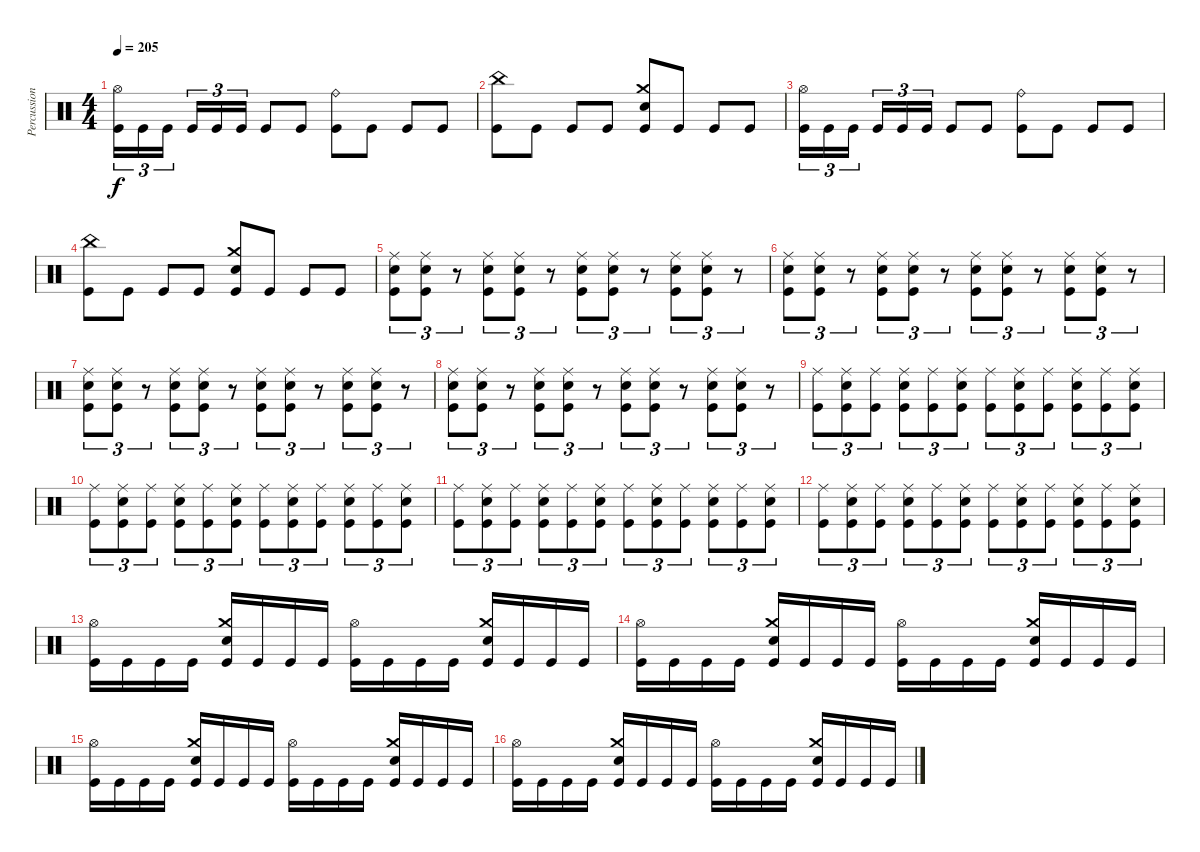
\track ("Percussion" "Percussion") {instrument percussion}
\staff {score}
\articulation defaults
\ts (4 4)
\tempo 205
\clef neutral
\ks c
("Hi-Hat (open)" "Kick (hit)").16{tu (3 2) dy f} "Kick (hit)".16{tu (3 2)} "Kick (hit)".16{tu (3 2)} "Kick (hit)".16{tu (3 2)} "Kick (hit)".16{tu (3 2)} "Kick (hit)".16{tu (3 2)} "Kick (hit)".8 "Kick (hit)".8 ("Ride (bell)" "Kick (hit)").8 "Kick (hit)".8 "Kick (hit)".8 "Kick (hit)".8 |
("China (hit)" "Kick (hit)").8 "Kick (hit)".8 "Kick (hit)".8 "Kick (hit)".8 ("Crash medium (hit)" "Electric Snare (hit)" "Kick (hit)").8 "Kick (hit)".8 "Kick (hit)".8 "Kick (hit)".8 |
("Hi-Hat (open)" "Kick (hit)").16{tu (3 2)} "Kick (hit)".16{tu (3 2)} "Kick (hit)".16{tu (3 2)} "Kick (hit)".16{tu (3 2)} "Kick (hit)".16{tu (3 2)} "Kick (hit)".16{tu (3 2)} "Kick (hit)".8 "Kick (hit)".8 ("Ride (bell)" "Kick (hit)").8 "Kick (hit)".8 "Kick (hit)".8 "Kick (hit)".8 |
("China (hit)" "Kick (hit)").8 "Kick (hit)".8 "Kick (hit)".8 "Kick (hit)".8 ("Crash medium (hit)" "Electric Snare (hit)" "Kick (hit)").8 "Kick (hit)".8 "Kick (hit)".8 "Kick (hit)".8 |
("Ride (middle)" "Electric Snare (hit)" "Kick (hit)").8{tu (3 2)} ("Ride (middle)" "Electric Snare (hit)" "Kick (hit)").8{tu (3 2)} r.8{tu (3 2)} ("Ride (middle)" "Electric Snare (hit)" "Kick (hit)").8{tu (3 2)} ("Ride (middle)" "Electric Snare (hit)" "Kick (hit)").8{tu (3 2)} r.8{tu (3 2)} ("Ride (middle)" "Electric Snare (hit)" "Kick (hit)").8{tu (3 2)} ("Ride (middle)" "Electric Snare (hit)" "Kick (hit)").8{tu (3 2)} r.8{tu (3 2)} ("Ride (middle)" "Electric Snare (hit)" "Kick (hit)").8{tu (3 2)} ("Ride (middle)" "Electric Snare (hit)" "Kick (hit)").8{tu (3 2)} r.8{tu (3 2)} |
("Ride (middle)" "Electric Snare (hit)" "Kick (hit)").8{tu (3 2)} ("Ride (middle)" "Electric Snare (hit)" "Kick (hit)").8{tu (3 2)} r.8{tu (3 2)} ("Ride (middle)" "Electric Snare (hit)" "Kick (hit)").8{tu (3 2)} ("Ride (middle)" "Electric Snare (hit)" "Kick (hit)").8{tu (3 2)} r.8{tu (3 2)} ("Ride (middle)" "Electric Snare (hit)" "Kick (hit)").8{tu (3 2)} ("Ride (middle)" "Electric Snare (hit)" "Kick (hit)").8{tu (3 2)} r.8{tu (3 2)} ("Ride (middle)" "Electric Snare (hit)" "Kick (hit)").8{tu (3 2)} ("Ride (middle)" "Electric Snare (hit)" "Kick (hit)").8{tu (3 2)} r.8{tu (3 2)} |
("Ride (middle)" "Electric Snare (hit)" "Kick (hit)").8{tu (3 2)} ("Ride (middle)" "Electric Snare (hit)" "Kick (hit)").8{tu (3 2)} r.8{tu (3 2)} ("Ride (middle)" "Electric Snare (hit)" "Kick (hit)").8{tu (3 2)} ("Ride (middle)" "Electric Snare (hit)" "Kick (hit)").8{tu (3 2)} r.8{tu (3 2)} ("Ride (middle)" "Electric Snare (hit)" "Kick (hit)").8{tu (3 2)} ("Ride (middle)" "Electric Snare (hit)" "Kick (hit)").8{tu (3 2)} r.8{tu (3 2)} ("Ride (middle)" "Electric Snare (hit)" "Kick (hit)").8{tu (3 2)} ("Ride (middle)" "Electric Snare (hit)" "Kick (hit)").8{tu (3 2)} r.8{tu (3 2)} |
("Ride (middle)" "Electric Snare (hit)" "Kick (hit)").8{tu (3 2)} ("Ride (middle)" "Electric Snare (hit)" "Kick (hit)").8{tu (3 2)} r.8{tu (3 2)} ("Ride (middle)" "Electric Snare (hit)" "Kick (hit)").8{tu (3 2)} ("Ride (middle)" "Electric Snare (hit)" "Kick (hit)").8{tu (3 2)} r.8{tu (3 2)} ("Ride (middle)" "Electric Snare (hit)" "Kick (hit)").8{tu (3 2)} ("Ride (middle)" "Electric Snare (hit)" "Kick (hit)").8{tu (3 2)} r.8{tu (3 2)} ("Ride (middle)" "Electric Snare (hit)" "Kick (hit)").8{tu (3 2)} ("Ride (middle)" "Electric Snare (hit)" "Kick (hit)").8{tu (3 2)} r.8{tu (3 2)} |
("Ride (middle)" "Kick (hit)").8{tu (3 2)} ("Ride (middle)" "Electric Snare (hit)" "Kick (hit)").8{tu (3 2)} ("Ride (middle)" "Kick (hit)").8{tu (3 2)} ("Ride (middle)" "Electric Snare (hit)" "Kick (hit)").8{tu (3 2)} ("Ride (middle)" "Kick (hit)").8{tu (3 2)} ("Ride (middle)" "Electric Snare (hit)" "Kick (hit)").8{tu (3 2)} ("Ride (middle)" "Kick (hit)").8{tu (3 2)} ("Ride (middle)" "Electric Snare (hit)" "Kick (hit)").8{tu (3 2)} ("Ride (middle)" "Kick (hit)").8{tu (3 2)} ("Ride (middle)" "Electric Snare (hit)" "Kick (hit)").8{tu (3 2)} ("Ride (middle)" "Kick (hit)").8{tu (3 2)} ("Ride (middle)" "Electric Snare (hit)" "Kick (hit)").8{tu (3 2)} |
("Ride (middle)" "Kick (hit)").8{tu (3 2)} ("Ride (middle)" "Electric Snare (hit)" "Kick (hit)").8{tu (3 2)} ("Ride (middle)" "Kick (hit)").8{tu (3 2)} ("Ride (middle)" "Electric Snare (hit)" "Kick (hit)").8{tu (3 2)} ("Ride (middle)" "Kick (hit)").8{tu (3 2)} ("Ride (middle)" "Electric Snare (hit)" "Kick (hit)").8{tu (3 2)} ("Ride (middle)" "Kick (hit)").8{tu (3 2)} ("Ride (middle)" "Electric Snare (hit)" "Kick (hit)").8{tu (3 2)} ("Ride (middle)" "Kick (hit)").8{tu (3 2)} ("Ride (middle)" "Electric Snare (hit)" "Kick (hit)").8{tu (3 2)} ("Ride (middle)" "Kick (hit)").8{tu (3 2)} ("Ride (middle)" "Electric Snare (hit)" "Kick (hit)").8{tu (3 2)} |
("Ride (middle)" "Kick (hit)").8{tu (3 2)} ("Ride (middle)" "Electric Snare (hit)" "Kick (hit)").8{tu (3 2)} ("Ride (middle)" "Kick (hit)").8{tu (3 2)} ("Ride (middle)" "Electric Snare (hit)" "Kick (hit)").8{tu (3 2)} ("Ride (middle)" "Kick (hit)").8{tu (3 2)} ("Ride (middle)" "Electric Snare (hit)" "Kick (hit)").8{tu (3 2)} ("Ride (middle)" "Kick (hit)").8{tu (3 2)} ("Ride (middle)" "Electric Snare (hit)" "Kick (hit)").8{tu (3 2)} ("Ride (middle)" "Kick (hit)").8{tu (3 2)} ("Ride (middle)" "Electric Snare (hit)" "Kick (hit)").8{tu (3 2)} ("Ride (middle)" "Kick (hit)").8{tu (3 2)} ("Ride (middle)" "Electric Snare (hit)" "Kick (hit)").8{tu (3 2)} |
("Ride (middle)" "Kick (hit)").8{tu (3 2)} ("Ride (middle)" "Electric Snare (hit)" "Kick (hit)").8{tu (3 2)} ("Ride (middle)" "Kick (hit)").8{tu (3 2)} ("Ride (middle)" "Electric Snare (hit)" "Kick (hit)").8{tu (3 2)} ("Ride (middle)" "Kick (hit)").8{tu (3 2)} ("Ride (middle)" "Electric Snare (hit)" "Kick (hit)").8{tu (3 2)} ("Ride (middle)" "Kick (hit)").8{tu (3 2)} ("Ride (middle)" "Electric Snare (hit)" "Kick (hit)").8{tu (3 2)} ("Ride (middle)" "Kick (hit)").8{tu (3 2)} ("Ride (middle)" "Electric Snare (hit)" "Kick (hit)").8{tu (3 2)} ("Ride (middle)" "Kick (hit)").8{tu (3 2)} ("Ride (middle)" "Electric Snare (hit)" "Kick (hit)").8{tu (3 2)} |
("Hi-Hat (open)" "Kick (hit)").16 "Kick (hit)".16 "Kick (hit)".16 "Kick (hit)".16 ("Crash medium (hit)" "Electric Snare (hit)" "Kick (hit)").16 "Kick (hit)".16 "Kick (hit)".16 "Kick (hit)".16 ("Hi-Hat (open)" "Kick (hit)").16 "Kick (hit)".16 "Kick (hit)".16 "Kick (hit)".16 ("Crash medium (hit)" "Electric Snare (hit)" "Kick (hit)").16 "Kick (hit)".16 "Kick (hit)".16 "Kick (hit)".16 |
("Hi-Hat (open)" "Kick (hit)").16 "Kick (hit)".16 "Kick (hit)".16 "Kick (hit)".16 ("Crash medium (hit)" "Electric Snare (hit)" "Kick (hit)").16 "Kick (hit)".16 "Kick (hit)".16 "Kick (hit)".16 ("Hi-Hat (open)" "Kick (hit)").16 "Kick (hit)".16 "Kick (hit)".16 "Kick (hit)".16 ("Crash medium (hit)" "Electric Snare (hit)" "Kick (hit)").16 "Kick (hit)".16 "Kick (hit)".16 "Kick (hit)".16 |
("Hi-Hat (open)" "Kick (hit)").16 "Kick (hit)".16 "Kick (hit)".16 "Kick (hit)".16 ("Crash medium (hit)" "Electric Snare (hit)" "Kick (hit)").16 "Kick (hit)".16 "Kick (hit)".16 "Kick (hit)".16 ("Hi-Hat (open)" "Kick (hit)").16 "Kick (hit)".16 "Kick (hit)".16 "Kick (hit)".16 ("Crash medium (hit)" "Electric Snare (hit)" "Kick (hit)").16 "Kick (hit)".16 "Kick (hit)".16 "Kick (hit)".16 |
("Hi-Hat (open)" "Kick (hit)").16 "Kick (hit)".16 "Kick (hit)".16 "Kick (hit)".16 ("Crash medium (hit)" "Electric Snare (hit)" "Kick (hit)").16 "Kick (hit)".16 "Kick (hit)".16 "Kick (hit)".16 ("Hi-Hat (open)" "Kick (hit)").16 "Kick (hit)".16 "Kick (hit)".16 "Kick (hit)".16 ("Crash medium (hit)" "Electric Snare (hit)" "Kick (hit)").16 "Kick (hit)".16 "Kick (hit)".16 "Kick (hit)".16
